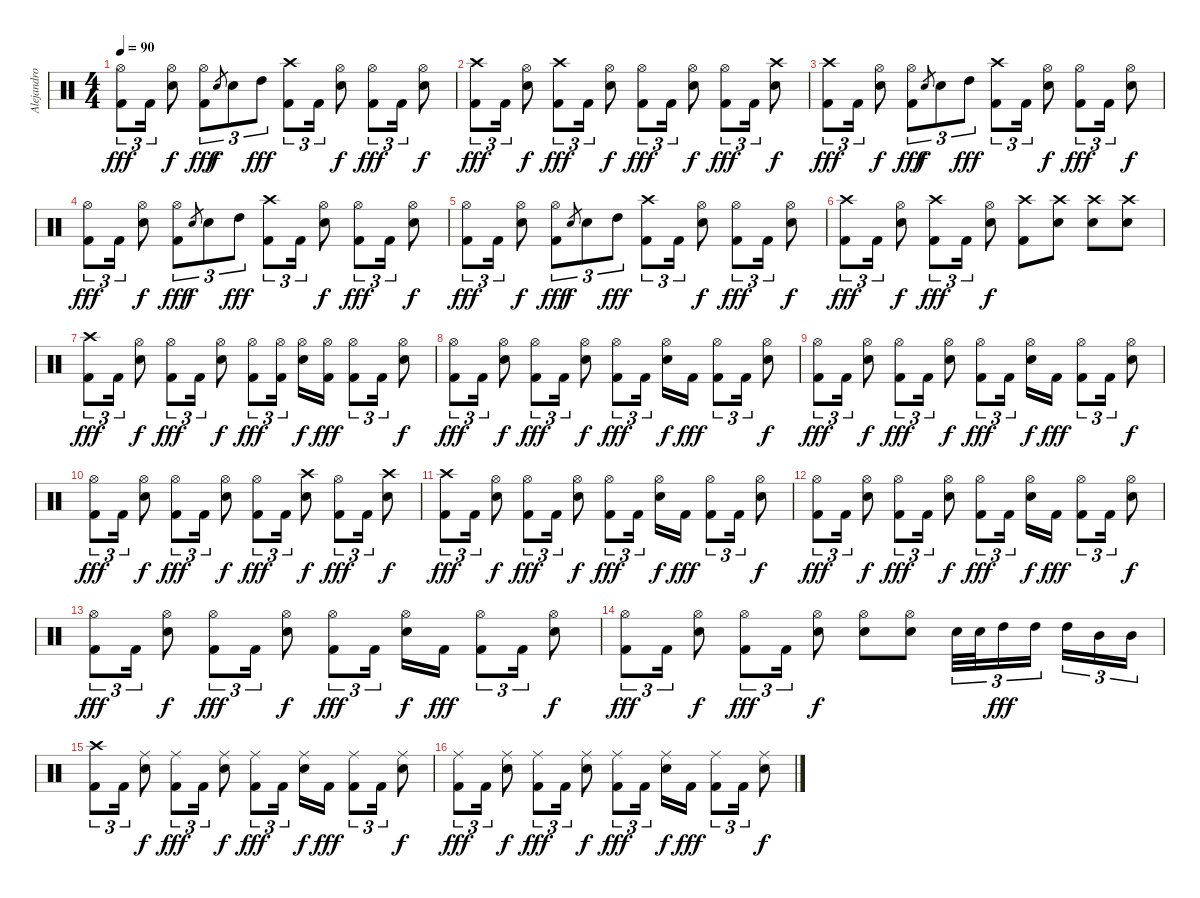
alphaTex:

\track ("Alejandro Gutiérrez" "Alejandro ") {instrument percussion}
\staff {score}
\articulation defaults
\ts (4 4)
\tempo 90
\clef neutral
\ks c
("Hi-Hat (open)" "Kick (hit) 2").8{tu (3 2) dy fff} "Kick (hit) 2".16{tu (3 2)} ("Hi-Hat (open)" "Electric Snare (hit)").8{dy f} ("Hi-Hat (open)" "Kick (hit) 2").8{tu (3 2) dy fff} "Electric Snare (hit)".8{gr dy f} "Electric Snare (hit)".8{tu (3 2)} "High Tom (hit)".8{tu (3 2) dy fff} ("Crash high (hit)" "Kick (hit) 2").8{tu (3 2)} "Kick (hit) 2".16{tu (3 2)} ("Hi-Hat (open)" "Electric Snare (hit)").8{dy f} ("Hi-Hat (open)" "Kick (hit) 2").8{tu (3 2) dy fff} "Kick (hit) 2".16{tu (3 2)} ("Hi-Hat (open)" "Electric Snare (hit)").8{dy f} |
("Crash high (hit)" "Kick (hit) 2").8{tu (3 2) dy fff} "Kick (hit) 2".16{tu (3 2)} ("Hi-Hat (open)" "Electric Snare (hit)").8{dy f} ("Crash high (hit)" "Kick (hit) 2").8{tu (3 2) dy fff} "Kick (hit) 2".16{tu (3 2)} ("Hi-Hat (open)" "Electric Snare (hit)").8{dy f} ("Hi-Hat (open)" "Kick (hit) 2").8{tu (3 2) dy fff} "Kick (hit) 2".16{tu (3 2)} ("Hi-Hat (open)" "Electric Snare (hit)").8{dy f} ("Hi-Hat (open)" "Kick (hit) 2").8{tu (3 2) dy fff} "Kick (hit) 2".16{tu (3 2)} ("Crash high (hit)" "Electric Snare (hit)").8{dy f} |
("Crash high (hit)" "Kick (hit) 2").8{tu (3 2) dy fff} "Kick (hit) 2".16{tu (3 2)} ("Hi-Hat (open)" "Electric Snare (hit)").8{dy f} ("Hi-Hat (open)" "Kick (hit) 2").8{tu (3 2) dy fff} "Electric Snare (hit)".8{gr dy f} "Electric Snare (hit)".8{tu (3 2)} "High Tom (hit)".8{tu (3 2) dy fff} ("Crash high (hit)" "Kick (hit) 2").8{tu (3 2)} "Kick (hit) 2".16{tu (3 2)} ("Hi-Hat (open)" "Electric Snare (hit)").8{dy f} ("Hi-Hat (open)" "Kick (hit) 2").8{tu (3 2) dy fff} "Kick (hit) 2".16{tu (3 2)} ("Hi-Hat (open)" "Electric Snare (hit)").8{dy f} |
("Hi-Hat (open)" "Kick (hit) 2").8{tu (3 2) dy fff} "Kick (hit) 2".16{tu (3 2)} ("Hi-Hat (open)" "Electric Snare (hit)").8{dy f} ("Hi-Hat (open)" "Kick (hit) 2").8{tu (3 2) dy fff} "Electric Snare (hit)".8{gr dy f} "Electric Snare (hit)".8{tu (3 2)} "High Tom (hit)".8{tu (3 2) dy fff} ("Crash high (hit)" "Kick (hit) 2").8{tu (3 2)} "Kick (hit) 2".16{tu (3 2)} ("Hi-Hat (open)" "Electric Snare (hit)").8{dy f} ("Hi-Hat (open)" "Kick (hit) 2").8{tu (3 2) dy fff} "Kick (hit) 2".16{tu (3 2)} ("Hi-Hat (open)" "Electric Snare (hit)").8{dy f} |
("Hi-Hat (open)" "Kick (hit) 2").8{tu (3 2) dy fff} "Kick (hit) 2".16{tu (3 2)} ("Hi-Hat (open)" "Electric Snare (hit)").8{dy f} ("Hi-Hat (open)" "Kick (hit) 2").8{tu (3 2) dy fff} "Electric Snare (hit)".8{gr dy f} "Electric Snare (hit)".8{tu (3 2)} "High Tom (hit)".8{tu (3 2) dy fff} ("Crash high (hit)" "Kick (hit) 2").8{tu (3 2)} "Kick (hit) 2".16{tu (3 2)} ("Hi-Hat (open)" "Electric Snare (hit)").8{dy f} ("Hi-Hat (open)" "Kick (hit) 2").8{tu (3 2) dy fff} "Kick (hit) 2".16{tu (3 2)} ("Hi-Hat (open)" "Electric Snare (hit)").8{dy f} |
("Crash high (hit)" "Kick (hit) 2").8{tu (3 2) dy fff} "Kick (hit) 2".16{tu (3 2)} ("Hi-Hat (open)" "Electric Snare (hit)").8{dy f} ("Crash high (hit)" "Kick (hit) 2").8{tu (3 2) dy fff} "Kick (hit) 2".16{tu (3 2)} ("Hi-Hat (open)" "Electric Snare (hit)").8{dy f} ("Crash high (hit)" "Kick (hit) 2").8 ("Crash high (hit)" "Electric Snare (hit)").8 ("Crash high (hit)" "Electric Snare (hit)").8 ("Crash high (hit)" "Electric Snare (hit)").8 |
("Crash high (hit)" "Kick (hit) 2").8{tu (3 2) dy fff} "Kick (hit) 2".16{tu (3 2)} ("Hi-Hat (open)" "Electric Snare (hit)").8{dy f} ("Hi-Hat (open)" "Kick (hit) 2").8{tu (3 2) dy fff} "Kick (hit) 2".16{tu (3 2)} ("Hi-Hat (open)" "Electric Snare (hit)").8{dy f} ("Hi-Hat (open)" "Kick (hit) 2").8{tu (3 2) dy fff} ("Hi-Hat (open)" "Kick (hit) 2").16{tu (3 2) beam splitsecondary} ("Hi-Hat (open)" "Electric Snare (hit)").16{dy f} ("Hi-Hat (open)" "Kick (hit) 2").16{dy fff} ("Hi-Hat (open)" "Kick (hit) 2").8{tu (3 2)} "Kick (hit) 2".16{tu (3 2)} ("Hi-Hat (open)" "Electric Snare (hit)").8{dy f} |
("Hi-Hat (open)" "Kick (hit) 2").8{tu (3 2) dy fff} "Kick (hit) 2".16{tu (3 2)} ("Hi-Hat (open)" "Electric Snare (hit)").8{dy f} ("Hi-Hat (open)" "Kick (hit) 2").8{tu (3 2) dy fff} "Kick (hit) 2".16{tu (3 2)} ("Hi-Hat (open)" "Electric Snare (hit)").8{dy f} ("Hi-Hat (open)" "Kick (hit) 2").8{tu (3 2) dy fff} "Kick (hit) 2".16{tu (3 2) beam splitsecondary} ("Hi-Hat (open)" "Electric Snare (hit)").16{dy f} "Kick (hit) 2".16{dy fff} ("Hi-Hat (open)" "Kick (hit) 2").8{tu (3 2)} "Kick (hit) 2".16{tu (3 2)} ("Hi-Hat (open)" "Electric Snare (hit)").8{dy f} |
("Hi-Hat (open)" "Kick (hit) 2").8{tu (3 2) dy fff} "Kick (hit) 2".16{tu (3 2)} ("Hi-Hat (open)" "Electric Snare (hit)").8{dy f} ("Hi-Hat (open)" "Kick (hit) 2").8{tu (3 2) dy fff} "Kick (hit) 2".16{tu (3 2)} ("Hi-Hat (open)" "Electric Snare (hit)").8{dy f} ("Hi-Hat (open)" "Kick (hit) 2").8{tu (3 2) dy fff} "Kick (hit) 2".16{tu (3 2) beam splitsecondary} ("Hi-Hat (open)" "Electric Snare (hit)").16{dy f} "Kick (hit) 2".16{dy fff} ("Hi-Hat (open)" "Kick (hit) 2").8{tu (3 2)} "Kick (hit) 2".16{tu (3 2)} ("Hi-Hat (open)" "Electric Snare (hit)").8{dy f} |
("Hi-Hat (open)" "Kick (hit) 2").8{tu (3 2) dy fff} "Kick (hit) 2".16{tu (3 2)} ("Hi-Hat (open)" "Electric Snare (hit)").8{dy f} ("Hi-Hat (open)" "Kick (hit) 2").8{tu (3 2) dy fff} "Kick (hit) 2".16{tu (3 2)} ("Hi-Hat (open)" "Electric Snare (hit)").8{dy f} ("Hi-Hat (open)" "Kick (hit) 2").8{tu (3 2) dy fff} "Kick (hit) 2".16{tu (3 2)} ("Crash high (hit)" "Electric Snare (hit)").8{dy f} ("Hi-Hat (open)" "Kick (hit) 2").8{tu (3 2) dy fff} "Kick (hit) 2".16{tu (3 2)} ("Crash high (hit)" "Electric Snare (hit)").8{dy f} |
("Crash high (hit)" "Kick (hit) 2").8{tu (3 2) dy fff} "Kick (hit) 2".16{tu (3 2)} ("Hi-Hat (open)" "Electric Snare (hit)").8{dy f} ("Hi-Hat (open)" "Kick (hit) 2").8{tu (3 2) dy fff} "Kick (hit) 2".16{tu (3 2)} ("Hi-Hat (open)" "Electric Snare (hit)").8{dy f} ("Hi-Hat (open)" "Kick (hit) 2").8{tu (3 2) dy fff} "Kick (hit) 2".16{tu (3 2) beam splitsecondary} ("Hi-Hat (open)" "Electric Snare (hit)").16{dy f} "Kick (hit) 2".16{dy fff} ("Hi-Hat (open)" "Kick (hit) 2").8{tu (3 2)} "Kick (hit) 2".16{tu (3 2)} ("Hi-Hat (open)" "Electric Snare (hit)").8{dy f} |
("Hi-Hat (open)" "Kick (hit) 2").8{tu (3 2) dy fff} "Kick (hit) 2".16{tu (3 2)} ("Hi-Hat (open)" "Electric Snare (hit)").8{dy f} ("Hi-Hat (open)" "Kick (hit) 2").8{tu (3 2) dy fff} "Kick (hit) 2".16{tu (3 2)} ("Hi-Hat (open)" "Electric Snare (hit)").8{dy f} ("Hi-Hat (open)" "Kick (hit) 2").8{tu (3 2) dy fff} "Kick (hit) 2".16{tu (3 2) beam splitsecondary} ("Hi-Hat (open)" "Electric Snare (hit)").16{dy f} "Kick (hit) 2".16{dy fff} ("Hi-Hat (open)" "Kick (hit) 2").8{tu (3 2)} "Kick (hit) 2".16{tu (3 2)} ("Hi-Hat (open)" "Electric Snare (hit)").8{dy f} |
("Hi-Hat (open)" "Kick (hit) 2").8{tu (3 2) dy fff} "Kick (hit) 2".16{tu (3 2)} ("Hi-Hat (open)" "Electric Snare (hit)").8{dy f} ("Hi-Hat (open)" "Kick (hit) 2").8{tu (3 2) dy fff} "Kick (hit) 2".16{tu (3 2)} ("Hi-Hat (open)" "Electric Snare (hit)").8{dy f} ("Hi-Hat (open)" "Kick (hit) 2").8{tu (3 2) dy fff} "Kick (hit) 2".16{tu (3 2) beam splitsecondary} ("Hi-Hat (open)" "Electric Snare (hit)").16{dy f} "Kick (hit) 2".16{dy fff} ("Hi-Hat (open)" "Kick (hit) 2").8{tu (3 2)} "Kick (hit) 2".16{tu (3 2)} ("Hi-Hat (open)" "Electric Snare (hit)").8{dy f} |
("Hi-Hat (open)" "Kick (hit) 2").8{tu (3 2) dy fff} "Kick (hit) 2".16{tu (3 2)} ("Hi-Hat (open)" "Electric Snare (hit)").8{dy f} ("Hi-Hat (open)" "Kick (hit) 2").8{tu (3 2) dy fff} "Kick (hit) 2".16{tu (3 2)} ("Hi-Hat (open)" "Electric Snare (hit)").8{dy f} ("Hi-Hat (open)" "Electric Snare (hit)").8 ("Hi-Hat (open)" "Electric Snare (hit)").8 "Electric Snare (hit)".32{tu (3 2)} "Electric Snare (hit)".32{tu (3 2)} "High Tom (hit)".16{tu (3 2) dy fff} "High Tom (hit)".16{tu (3 2) beam splitsecondary} "High Tom (hit)".16{tu (3 2)} "Mid Tom (hit)".16{tu (3 2)} "Mid Tom (hit)".16{tu (3 2)} |
("Crash high (hit)" "Kick (hit) 2").8{tu (3 2)} "Kick (hit) 2".16{tu (3 2)} ("Ride (middle)" "Electric Snare (hit)").8{dy f} ("Ride (middle)" "Kick (hit) 2").8{tu (3 2) dy fff} "Kick (hit) 2".16{tu (3 2)} ("Ride (middle)" "Electric Snare (hit)").8{dy f} ("Ride (middle)" "Kick (hit) 2").8{tu (3 2) dy fff} "Kick (hit) 2".16{tu (3 2) beam splitsecondary} ("Ride (middle)" "Electric Snare (hit)").16{dy f} "Kick (hit) 2".16{dy fff} ("Ride (middle)" "Kick (hit) 2").8{tu (3 2)} "Kick (hit) 2".16{tu (3 2)} ("Ride (middle)" "Electric Snare (hit)").8{dy f} |
("Ride (middle)" "Kick (hit) 2").8{tu (3 2) dy fff} "Kick (hit) 2".16{tu (3 2)} ("Ride (middle)" "Electric Snare (hit)").8{dy f} ("Ride (middle)" "Kick (hit) 2").8{tu (3 2) dy fff} "Kick (hit) 2".16{tu (3 2)} ("Ride (middle)" "Electric Snare (hit)").8{dy f} ("Ride (middle)" "Kick (hit) 2").8{tu (3 2) dy fff} "Kick (hit) 2".16{tu (3 2) beam splitsecondary} ("Ride (middle)" "Electric Snare (hit)").16{dy f} "Kick (hit) 2".16{dy fff} ("Ride (middle)" "Kick (hit) 2").8{tu (3 2)} "Kick (hit) 2".16{tu (3 2)} ("Ride (middle)" "Electric Snare (hit)").8{dy f}
